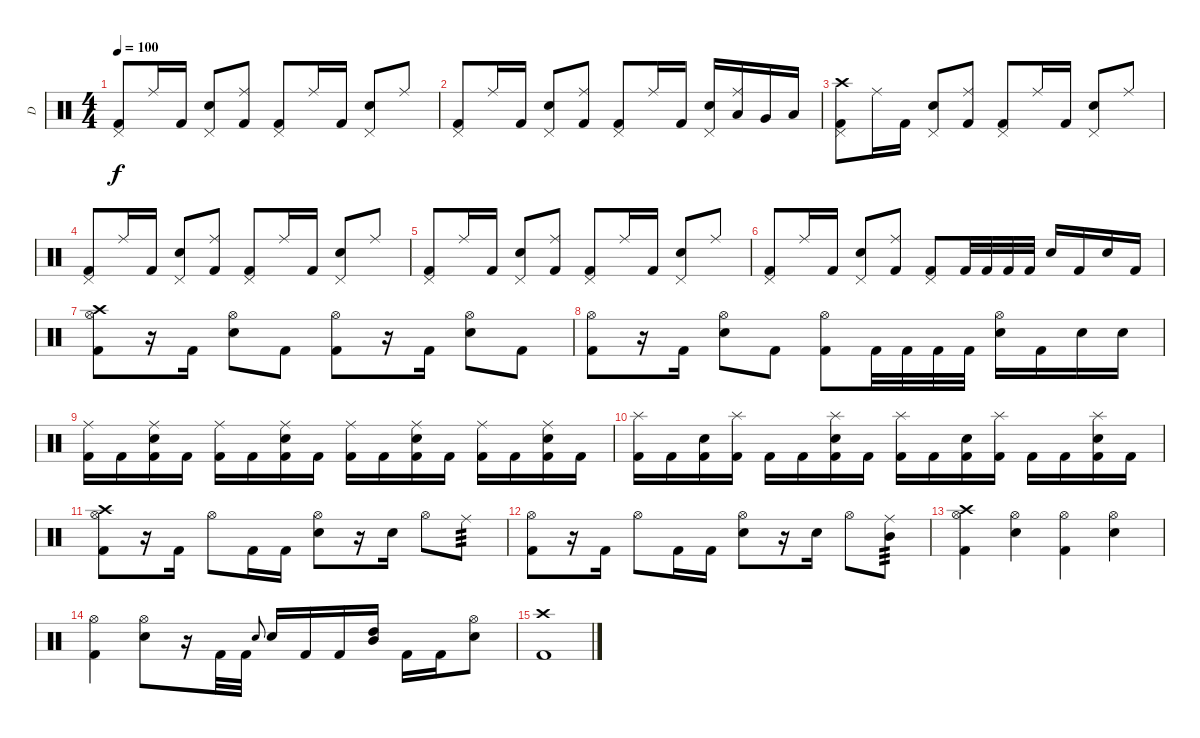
\track ("D" "D") {instrument percussion}
\staff {score}
\articulation defaults
\ts (4 4)
\tempo 100
\clef neutral
\ks c
("Kick (hit) 2" "Pedal Hi-Hat (hit)").8{dy f} "Ride (middle)".16 "Kick (hit) 2".16 ("Electric Snare (hit)" "Pedal Hi-Hat (hit)").8 ("Kick (hit) 2" "Ride (middle)").8 ("Kick (hit) 2" "Pedal Hi-Hat (hit)").8 "Ride (middle)".16 "Kick (hit) 2".16 ("Electric Snare (hit)" "Pedal Hi-Hat (hit)").8 "Ride (middle)".8 |
("Kick (hit) 2" "Pedal Hi-Hat (hit)").8 "Ride (middle)".16 "Kick (hit) 2".16 ("Electric Snare (hit)" "Pedal Hi-Hat (hit)").8 ("Kick (hit) 2" "Ride (middle)").8 ("Kick (hit) 2" "Pedal Hi-Hat (hit)").8 "Ride (middle)".16 "Kick (hit) 2".16 ("Electric Snare (hit)" "Pedal Hi-Hat (hit)").16 ("Low Tom (hit)" "Ride (middle)").16 "Very Low Tom (hit)".16 "Low Floor Tom (hit)".16 |
("Crash high (hit)" "Kick (hit) 2" "Pedal Hi-Hat (hit)").8 "Ride (middle)".16 "Kick (hit) 2".16 ("Electric Snare (hit)" "Pedal Hi-Hat (hit)").8 ("Kick (hit) 2" "Ride (middle)").8 ("Kick (hit) 2" "Pedal Hi-Hat (hit)").8 "Ride (middle)".16 "Kick (hit) 2".16 ("Electric Snare (hit)" "Pedal Hi-Hat (hit)").8 "Ride (middle)".8 |
("Kick (hit) 2" "Pedal Hi-Hat (hit)").8 "Ride (middle)".16 "Kick (hit) 2".16 ("Electric Snare (hit)" "Pedal Hi-Hat (hit)").8 ("Kick (hit) 2" "Ride (middle)").8 ("Kick (hit) 2" "Pedal Hi-Hat (hit)").8 "Ride (middle)".16 "Kick (hit) 2".16 ("Electric Snare (hit)" "Pedal Hi-Hat (hit)").8 "Ride (middle)".8 |
("Kick (hit) 2" "Pedal Hi-Hat (hit)").8 "Ride (middle)".16 "Kick (hit) 2".16 ("Electric Snare (hit)" "Pedal Hi-Hat (hit)").8 ("Kick (hit) 2" "Ride (middle)").8 ("Kick (hit) 2" "Pedal Hi-Hat (hit)").8 "Ride (middle)".16 "Kick (hit) 2".16 ("Electric Snare (hit)" "Pedal Hi-Hat (hit)").8 "Ride (middle)".8 |
("Kick (hit) 2" "Pedal Hi-Hat (hit)").8 "Ride (middle)".16 "Kick (hit) 2".16 ("Electric Snare (hit)" "Pedal Hi-Hat (hit)").8 ("Kick (hit) 2" "Ride (middle)").8 ("Kick (hit) 2" "Pedal Hi-Hat (hit)").8 "Kick (hit) 2".32 "Kick (hit) 2".32 "Kick (hit) 2".32 "Kick (hit) 2".32 "Electric Snare (hit)".16 "Kick (hit) 2".16 "Electric Snare (hit)".16 "Kick (hit) 2".16 |
("Crash high (hit)" "Kick (hit) 2" "Hi-Hat (open)").8 r.16 "Kick (hit) 2".16 ("Electric Snare (hit)" "Hi-Hat (open)").8 "Kick (hit) 2".8 ("Kick (hit) 2" "Hi-Hat (open)").8 r.16 "Kick (hit) 2".16 ("Electric Snare (hit)" "Hi-Hat (open)").8 "Kick (hit) 2".8 |
("Kick (hit) 2" "Hi-Hat (open)").8 r.16 "Kick (hit) 2".16 ("Electric Snare (hit)" "Hi-Hat (open)").8 "Kick (hit) 2".8 ("Kick (hit) 2" "Hi-Hat (open)").8 "Kick (hit) 2".32 "Kick (hit) 2".32 "Kick (hit) 2".32 "Kick (hit) 2".32 ("Electric Snare (hit)" "Hi-Hat (open)").16 "Kick (hit) 2".16 "Electric Snare (hit)".16 "Electric Snare (hit)".16 |
("Kick (hit) 2" "Ride (middle)").16 "Kick (hit) 2".16 ("Electric Snare (hit)" "Kick (hit) 2" "Ride (middle)").16 "Kick (hit) 2".16 ("Kick (hit) 2" "Ride (middle)").16 "Kick (hit) 2".16 ("Electric Snare (hit)" "Kick (hit) 2" "Ride (middle)").16 "Kick (hit) 2".16 ("Kick (hit) 2" "Ride (middle)").16 "Kick (hit) 2".16 ("Electric Snare (hit)" "Kick (hit) 2" "Ride (middle)").16 "Kick (hit) 2".16 ("Kick (hit) 2" "Ride (middle)").16 "Kick (hit) 2".16 ("Electric Snare (hit)" "Kick (hit) 2" "Ride (middle)").16 "Kick (hit) 2".16 |
("Splash (hit)" "Kick (hit) 2").16 "Kick (hit) 2".16 ("Electric Snare (hit)" "Kick (hit) 2").16 ("Splash (hit)" "Kick (hit) 2").16 "Kick (hit) 2".16 "Kick (hit) 2".16 ("Splash (hit)" "Electric Snare (hit)" "Kick (hit) 2").16 "Kick (hit) 2".16 ("Splash (hit)" "Kick (hit) 2").16 "Kick (hit) 2".16 ("Electric Snare (hit)" "Kick (hit) 2").16 ("Splash (hit)" "Kick (hit) 2").16 "Kick (hit) 2".16 "Kick (hit) 2".16 ("Splash (hit)" "Electric Snare (hit)" "Kick (hit) 2").16 "Kick (hit) 2".16 |
("Crash high (hit)" "Kick (hit) 2" "Hi-Hat (open)").8 r.16 "Kick (hit) 2".16 "Hi-Hat (open)".8 "Kick (hit) 2".16 "Kick (hit) 2".16 ("Electric Snare (hit)" "Hi-Hat (open)").8 r.16 "Electric Snare (hit)".16 "Hi-Hat (open)".8 "Ride (middle)".8{tp 3} |
("Kick (hit) 2" "Hi-Hat (open)").8 r.16 "Kick (hit) 2".16 "Hi-Hat (open)".8 "Kick (hit) 2".16 "Kick (hit) 2".16 ("Electric Snare (hit)" "Hi-Hat (open)").8 r.16 "Electric Snare (hit)".16 "Hi-Hat (open)".8 ("Mid Tom (hit)" "Ride (middle)").8{tp 3} |
("Crash high (hit)" "Kick (hit) 2" "Hi-Hat (open)").4 ("Electric Snare (hit)" "Hi-Hat (open)").4 ("Kick (hit) 2" "Hi-Hat (open)").4 ("Electric Snare (hit)" "Hi-Hat (open)").4 |
("Kick (hit) 2" "Hi-Hat (open)").4 ("Electric Snare (hit)" "Hi-Hat (open)").8 r.16 "Kick (hit) 2".32 "Kick (hit) 2".32 "Electric Snare (hit)".8{gr onbeat} "Electric Snare (hit)".16 "Kick (hit) 2".16 "Kick (hit) 2".16 ("Mid Tom (hit)" "High Tom (hit)").16 "Kick (hit) 2".16 "Kick (hit) 2".16 ("Electric Snare (hit)" "Hi-Hat (open)").8 |
("Crash high (hit)" "Kick (hit) 2").1
